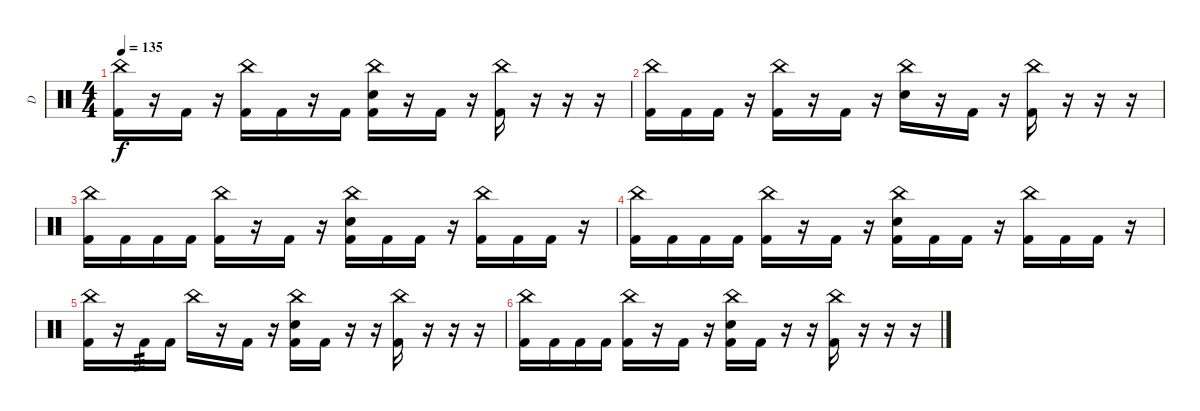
\track ("D" "D") {instrument percussion}
\staff {score}
\articulation defaults
\ts (4 4)
\tempo 135
\clef neutral
\ks c
("China (hit)" "Kick (hit) 2").16{dy f} r.16 "Kick (hit) 2".16 r.16 ("China (hit)" "Kick (hit) 2").16 "Kick (hit) 2".16 r.16 "Kick (hit) 2".16 ("China (hit)" "Electric Snare (hit)" "Kick (hit) 2").16 r.16 "Kick (hit) 2".16 r.16 ("China (hit)" "Kick (hit) 2").16 r.16 r.16 r.16 |
("China (hit)" "Kick (hit) 2").16 "Kick (hit) 2".16 "Kick (hit) 2".16 r.16 ("China (hit)" "Kick (hit) 2").16 r.16 "Kick (hit) 2".16 r.16 ("Electric Snare (hit)" "China (hit)").16 r.16 "Kick (hit) 2".16 r.16 ("China (hit)" "Kick (hit) 2").16 r.16 r.16 r.16 |
("China (hit)" "Kick (hit) 2").16 "Kick (hit) 2".16 "Kick (hit) 2".16 "Kick (hit) 2".16 ("China (hit)" "Kick (hit) 2").16 r.16 "Kick (hit) 2".16 r.16 ("Electric Snare (hit)" "China (hit)" "Kick (hit) 2").16 "Kick (hit) 2".16 "Kick (hit) 2".16 r.16 ("China (hit)" "Kick (hit) 2").16 "Kick (hit) 2".16 "Kick (hit) 2".16 r.16 |
("China (hit)" "Kick (hit) 2").16 "Kick (hit) 2".16 "Kick (hit) 2".16 "Kick (hit) 2".16 ("China (hit)" "Kick (hit) 2").16 r.16 "Kick (hit) 2".16 r.16 ("Electric Snare (hit)" "China (hit)" "Kick (hit) 2").16 "Kick (hit) 2".16 "Kick (hit) 2".16 r.16 ("China (hit)" "Kick (hit) 2").16 "Kick (hit) 2".16 "Kick (hit) 2".16 r.16 |
("China (hit)" "Kick (hit) 2").16 r.16 "Kick (hit) 2".16{tp 3} "Kick (hit) 2".16 "China (hit)".16 r.16 "Kick (hit) 2".16 r.16 ("China (hit)" "Electric Snare (hit)" "Kick (hit) 2").16 "Kick (hit) 2".16 r.16 r.16 ("China (hit)" "Kick (hit) 2").16 r.16 r.16 r.16 |
("China (hit)" "Kick (hit) 2").16 "Kick (hit) 2".16 "Kick (hit) 2".16 "Kick (hit) 2".16 ("China (hit)" "Kick (hit) 2").16 r.16 "Kick (hit) 2".16 r.16 ("Electric Snare (hit)" "China (hit)" "Kick (hit) 2").16 "Kick (hit) 2".16 r.16 r.16 ("China (hit)" "Kick (hit) 2").16 r.16 r.16 r.16
